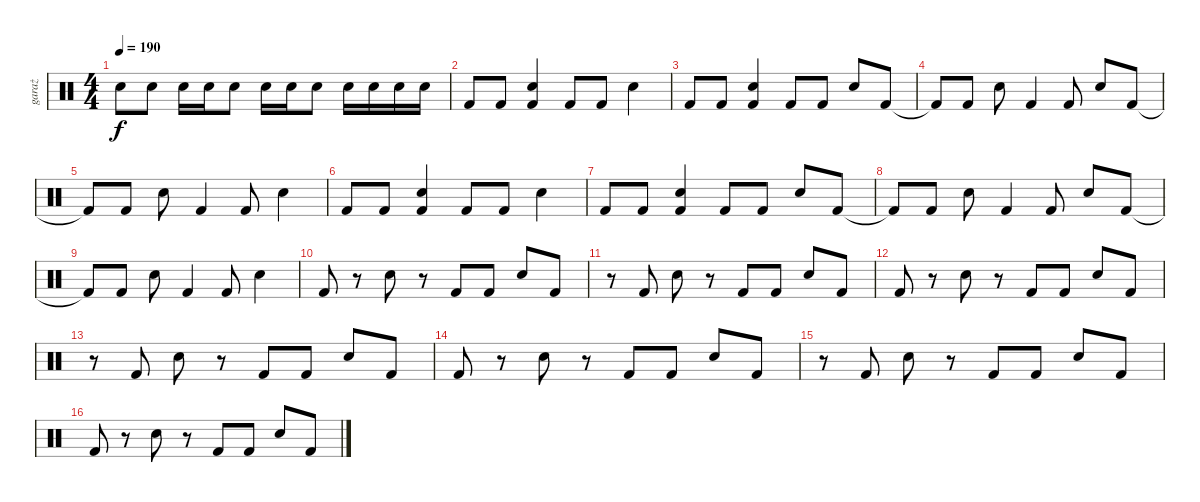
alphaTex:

\track ("garaż" "garaż") {instrument percussion}
\staff {score}
\articulation defaults
\ts (4 4)
\tempo 190
\clef neutral
\ks c "Snare (hit) 2".8{dy f} "Snare (hit) 2".8 "Snare (hit) 2".16 "Snare (hit) 2".16 "Snare (hit) 2".8 "Snare (hit) 2".16 "Snare (hit) 2".16 "Snare (hit) 2".8 "Snare (hit) 2".16 "Snare (hit) 2".16 "Snare (hit) 2".16 "Snare (hit) 2".16
|
"Kick (hit) 2".8 "Kick (hit) 2".8 ("Snare (hit) 2" "Kick (hit) 2").4 "Kick (hit) 2".8 "Kick (hit) 2".8 "Snare (hit) 2".4 |
"Kick (hit) 2".8 "Kick (hit) 2".8 ("Snare (hit) 2" "Kick (hit) 2").4 "Kick (hit) 2".8 "Kick (hit) 2".8 "Snare (hit) 2".8 "Kick (hit) 2".8 |
"Kick (hit) 2"{t}.8 "Kick (hit) 2".8 "Snare (hit) 2".8 "Kick (hit) 2".4 "Kick (hit) 2".8 "Snare (hit) 2".8 "Kick (hit) 2".8 |
"Kick (hit) 2"{t}.8 "Kick (hit) 2".8 "Snare (hit) 2".8 "Kick (hit) 2".4 "Kick (hit) 2".8 "Snare (hit) 2".4 |
"Kick (hit) 2".8 "Kick (hit) 2".8 ("Snare (hit) 2" "Kick (hit) 2").4 "Kick (hit) 2".8 "Kick (hit) 2".8 "Snare (hit) 2".4 |
"Kick (hit) 2".8 "Kick (hit) 2".8 ("Snare (hit) 2" "Kick (hit) 2").4 "Kick (hit) 2".8 "Kick (hit) 2".8 "Snare (hit) 2".8 "Kick (hit) 2".8 |
"Kick (hit) 2"{t}.8 "Kick (hit) 2".8 "Snare (hit) 2".8 "Kick (hit) 2".4 "Kick (hit) 2".8 "Snare (hit) 2".8 "Kick (hit) 2".8 |
"Kick (hit) 2"{t}.8 "Kick (hit) 2".8 "Snare (hit) 2".8 "Kick (hit) 2".4 "Kick (hit) 2".8 "Snare (hit) 2".4 |
"Kick (hit) 2".8 r.8 "Snare (hit) 2".8 r.8 "Kick (hit) 2".8 "Kick (hit) 2".8 "Snare (hit) 2".8 "Kick (hit) 2".8 |
r.8 "Kick (hit) 2".8 "Snare (hit) 2".8 r.8 "Kick (hit) 2".8 "Kick (hit) 2".8 "Snare (hit) 2".8 "Kick (hit) 2".8 |
"Kick (hit) 2".8 r.8 "Snare (hit) 2".8 r.8 "Kick (hit) 2".8 "Kick (hit) 2".8 "Snare (hit) 2".8 "Kick (hit) 2".8 |
r.8 "Kick (hit) 2".8 "Snare (hit) 2".8 r.8 "Kick (hit) 2".8 "Kick (hit) 2".8 "Snare (hit) 2".8 "Kick (hit) 2".8 |
"Kick (hit) 2".8 r.8 "Snare (hit) 2".8 r.8 "Kick (hit) 2".8 "Kick (hit) 2".8 "Snare (hit) 2".8 "Kick (hit) 2".8 |
r.8 "Kick (hit) 2".8 "Snare (hit) 2".8 r.8 "Kick (hit) 2".8 "Kick (hit) 2".8 "Snare (hit) 2".8 "Kick (hit) 2".8 |
"Kick (hit) 2".8 r.8 "Snare (hit) 2".8 r.8 "Kick (hit) 2".8 "Kick (hit) 2".8 "Snare (hit) 2".8 "Kick (hit) 2".8
